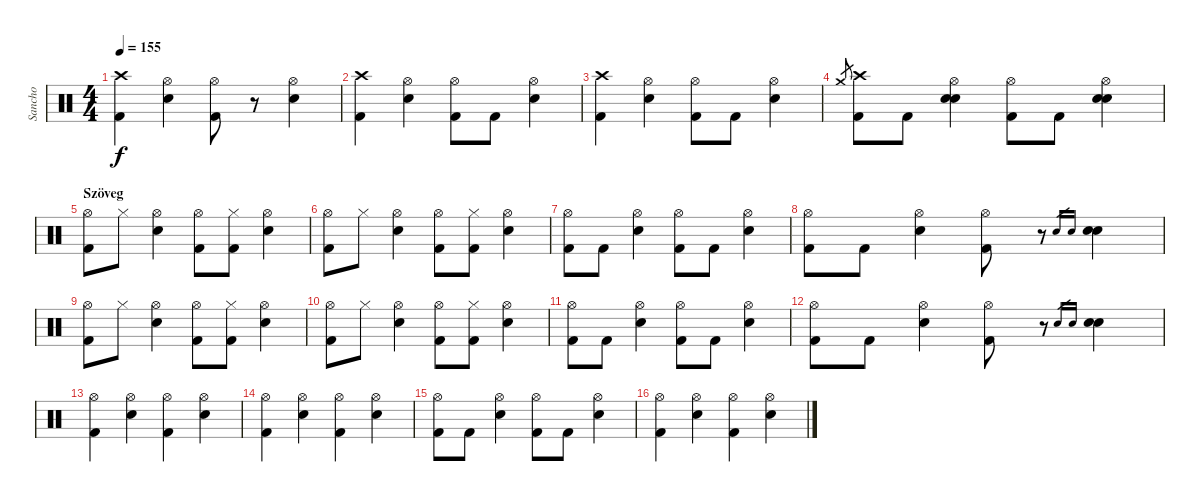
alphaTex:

\track ("Sancho" "Sancho") {instrument percussion}
\staff {score}
\articulation defaults
\ts (4 4)
\tempo 155
\clef neutral
\ks c
("Crash high (hit)" "Kick (hit) 2").4{dy f} ("Hi-Hat (open)" "Electric Snare (hit)").4 ("Hi-Hat (open)" "Kick (hit) 2").8 r.8 ("Hi-Hat (open)" "Electric Snare (hit)").4 |
("Crash high (hit)" "Kick (hit) 2").4 ("Hi-Hat (open)" "Electric Snare (hit)").4 ("Hi-Hat (open)" "Kick (hit) 2").8 "Kick (hit) 2".8 ("Hi-Hat (open)" "Electric Snare (hit)").4 |
("Crash high (hit)" "Kick (hit) 2").4 ("Hi-Hat (open)" "Electric Snare (hit)").4 ("Hi-Hat (open)" "Kick (hit) 2").8 "Kick (hit) 2".8 ("Hi-Hat (open)" "Electric Snare (hit)").4 |
"Crash medium (hit)".8{gr} ("Crash high (hit)" "Kick (hit) 2").8 "Kick (hit) 2".8 ("Hi-Hat (open)" "Electric Snare (hit)" "Electric Snare (hit)").4 ("Hi-Hat (open)" "Kick (hit) 2").8 "Kick (hit) 2".8 ("Hi-Hat (open)" "Electric Snare (hit)" "Electric Snare (hit)").4 |
\section ("" "Szöveg")
("Hi-Hat (open)" "Kick (hit) 2").8 "Hi-Hat (closed)".8 ("Hi-Hat (open)" "Electric Snare (hit)").4 ("Hi-Hat (open)" "Kick (hit) 2").8 ("Hi-Hat (closed)" "Kick (hit) 2").8 ("Hi-Hat (open)" "Electric Snare (hit)").4 |
("Hi-Hat (open)" "Kick (hit) 2").8 "Hi-Hat (closed)".8 ("Hi-Hat (open)" "Electric Snare (hit)").4 ("Hi-Hat (open)" "Kick (hit) 2").8 ("Hi-Hat (closed)" "Kick (hit) 2").8 ("Hi-Hat (open)" "Electric Snare (hit)").4 |
("Hi-Hat (open)" "Kick (hit) 2").8 "Kick (hit) 2".8 ("Hi-Hat (open)" "Electric Snare (hit)").4 ("Hi-Hat (open)" "Kick (hit) 2").8 "Kick (hit) 2".8 ("Hi-Hat (open)" "Electric Snare (hit)").4 |
("Hi-Hat (open)" "Kick (hit) 2").8 "Kick (hit) 2".8 ("Hi-Hat (open)" "Electric Snare (hit)").4 ("Hi-Hat (open)" "Kick (hit) 2").8 r.8 "Snare (hit) 2".16{gr} "Snare (hit) 2".16{gr} ("Electric Snare (hit)" "Electric Snare (hit)").4 |
("Hi-Hat (open)" "Kick (hit) 2").8 "Hi-Hat (closed)".8 ("Hi-Hat (open)" "Electric Snare (hit)").4 ("Hi-Hat (open)" "Kick (hit) 2").8 ("Hi-Hat (closed)" "Kick (hit) 2").8 ("Hi-Hat (open)" "Electric Snare (hit)").4 |
("Hi-Hat (open)" "Kick (hit) 2").8 "Hi-Hat (closed)".8 ("Hi-Hat (open)" "Electric Snare (hit)").4 ("Hi-Hat (open)" "Kick (hit) 2").8 ("Hi-Hat (closed)" "Kick (hit) 2").8 ("Hi-Hat (open)" "Electric Snare (hit)").4 |
("Hi-Hat (open)" "Kick (hit) 2").8 "Kick (hit) 2".8 ("Hi-Hat (open)" "Electric Snare (hit)").4 ("Hi-Hat (open)" "Kick (hit) 2").8 "Kick (hit) 2".8 ("Hi-Hat (open)" "Electric Snare (hit)").4 |
("Hi-Hat (open)" "Kick (hit) 2").8 "Kick (hit) 2".8 ("Hi-Hat (open)" "Electric Snare (hit)").4 ("Hi-Hat (open)" "Kick (hit) 2").8 r.8 "Snare (hit) 2".16{gr} "Snare (hit) 2".16{gr} ("Electric Snare (hit)" "Electric Snare (hit)").4 |
("Hi-Hat (open)" "Kick (hit) 2").4 ("Hi-Hat (open)" "Electric Snare (hit)").4 ("Hi-Hat (open)" "Kick (hit) 2").4 ("Hi-Hat (open)" "Electric Snare (hit)").4 |
("Hi-Hat (open)" "Kick (hit) 2").4 ("Hi-Hat (open)" "Electric Snare (hit)").4 ("Hi-Hat (open)" "Kick (hit) 2").4 ("Hi-Hat (open)" "Electric Snare (hit)").4 |
("Hi-Hat (open)" "Kick (hit) 2").8 "Kick (hit) 2".8 ("Hi-Hat (open)" "Electric Snare (hit)").4 ("Hi-Hat (open)" "Kick (hit) 2").8 "Kick (hit) 2".8 ("Hi-Hat (open)" "Electric Snare (hit)").4 |
("Hi-Hat (open)" "Kick (hit) 2").4 ("Hi-Hat (open)" "Electric Snare (hit)").4 ("Hi-Hat (open)" "Kick (hit) 2").4 ("Hi-Hat (open)" "Electric Snare (hit)").4
